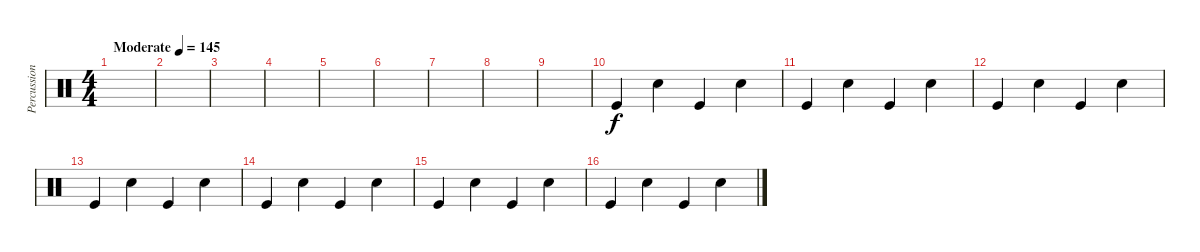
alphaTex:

\track ("Percussion" "Percussion") {instrument percussion}
\staff {score}
\articulation defaults
\ts (4 4)
\tempo (145 "Moderate")
\clef neutral
\ks c
|
|
|
|
|
|
|
|
|
"Kick (hit)".4 "Snare (hit) 2".4 "Kick (hit)".4 "Snare (hit) 2".4 |
"Kick (hit)".4 "Snare (hit) 2".4 "Kick (hit)".4 "Snare (hit) 2".4 |
"Kick (hit)".4 "Snare (hit) 2".4 "Kick (hit)".4 "Snare (hit) 2".4 |
"Kick (hit)".4 "Snare (hit) 2".4 "Kick (hit)".4 "Snare (hit) 2".4 |
"Kick (hit)".4 "Snare (hit) 2".4 "Kick (hit)".4 "Snare (hit) 2".4 |
"Kick (hit)".4 "Snare (hit) 2".4 "Kick (hit)".4 "Snare (hit) 2".4 |
"Kick (hit)".4 "Snare (hit) 2".4 "Kick (hit)".4 "Snare (hit) 2".4
